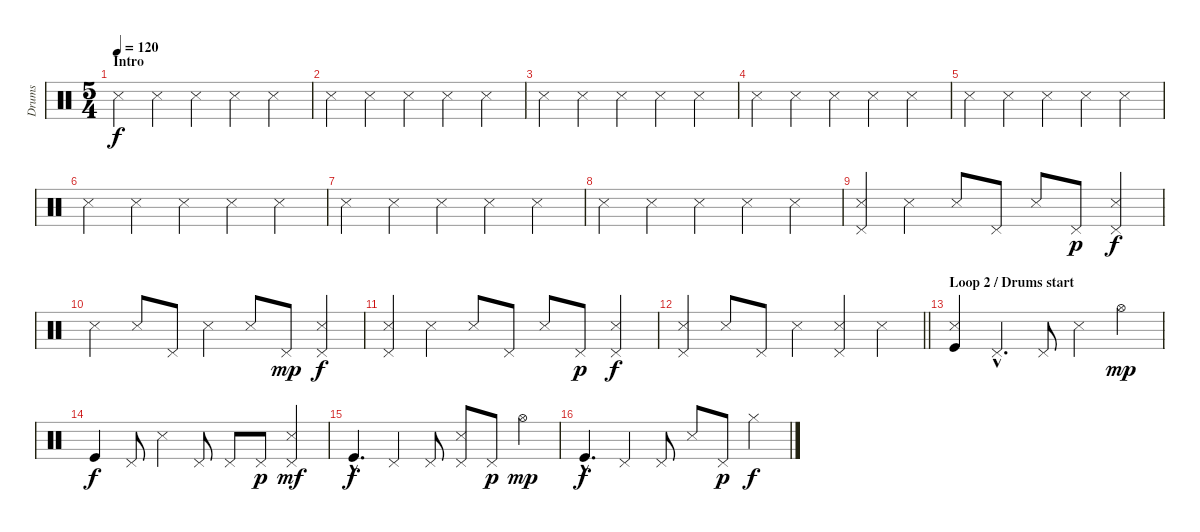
\track ("Drums" "Drums") {instrument percussion}
\staff {score}
\articulation defaults
\ts (5 4)
\section ("" "Intro")
\tempo 120
\clef neutral
\ks c "Snare (side stick) 3".4{dy f} "Snare (side stick) 3".4 "Snare (side stick) 3".4 "Snare (side stick) 3".4 "Snare (side stick) 3".4
|
"Snare (side stick) 3".4 "Snare (side stick) 3".4 "Snare (side stick) 3".4 "Snare (side stick) 3".4 "Snare (side stick) 3".4 |
"Snare (side stick) 3".4 "Snare (side stick) 3".4 "Snare (side stick) 3".4 "Snare (side stick) 3".4 "Snare (side stick) 3".4 |
"Snare (side stick) 3".4 "Snare (side stick) 3".4 "Snare (side stick) 3".4 "Snare (side stick) 3".4 "Snare (side stick) 3".4 |
"Snare (side stick) 3".4 "Snare (side stick) 3".4 "Snare (side stick) 3".4 "Snare (side stick) 3".4 "Snare (side stick) 3".4 |
"Snare (side stick) 3".4 "Snare (side stick) 3".4 "Snare (side stick) 3".4 "Snare (side stick) 3".4 "Snare (side stick) 3".4 |
"Snare (side stick) 3".4 "Snare (side stick) 3".4 "Snare (side stick) 3".4 "Snare (side stick) 3".4 "Snare (side stick) 3".4 |
"Snare (side stick) 3".4 "Snare (side stick) 3".4 "Snare (side stick) 3".4 "Snare (side stick) 3".4 "Snare (side stick) 3".4 |
("Pedal Hi-Hat (hit)" "Snare (side stick) 3").4 "Snare (side stick) 3".4 "Snare (side stick) 3".8 "Pedal Hi-Hat (hit)".8 "Snare (side stick) 3".8 "Pedal Hi-Hat (hit)".8{dy p} ("Pedal Hi-Hat (hit)" "Snare (side stick) 3").4{dy f} |
"Snare (side stick) 3".4 "Snare (side stick) 3".8 "Pedal Hi-Hat (hit)".8 "Snare (side stick) 3".4 "Snare (side stick) 3".8 "Pedal Hi-Hat (hit)".8{dy mp} ("Pedal Hi-Hat (hit)" "Snare (side stick) 3").4{dy f} |
("Pedal Hi-Hat (hit)" "Snare (side stick) 3").4 "Snare (side stick) 3".4 "Snare (side stick) 3".8 "Pedal Hi-Hat (hit)".8 "Snare (side stick) 3".8 "Pedal Hi-Hat (hit)".8{dy p} ("Pedal Hi-Hat (hit)" "Snare (side stick) 3").4{dy f} |
\barLineRight lightlight
("Pedal Hi-Hat (hit)" "Snare (side stick) 3").4 "Snare (side stick) 3".8 "Pedal Hi-Hat (hit)".8 "Snare (side stick) 3".4 ("Pedal Hi-Hat (hit)" "Snare (side stick) 3").4 "Snare (side stick) 3".4 |
\section ("" "Loop 2 / Drums start")
("Snare (side stick) 3" "Kick (hit)").4 "Pedal Hi-Hat (hit)"{hac}.4{d} "Pedal Hi-Hat (hit)".8 "Snare (side stick) 3".4 "Hi-Hat (open)".4{dy mp} |
"Kick (hit)".4{dy f} "Pedal Hi-Hat (hit)".8 "Snare (side stick) 3".4 "Pedal Hi-Hat (hit)".8 "Pedal Hi-Hat (hit)".8 "Pedal Hi-Hat (hit)".8{dy p} ("Pedal Hi-Hat (hit)" "Snare (side stick) 3").4{dy mf} |
"Kick (hit)"{hac}.4{d dy f} "Pedal Hi-Hat (hit)".4 "Pedal Hi-Hat (hit)".8 ("Pedal Hi-Hat (hit)" "Snare (side stick) 3").8 "Pedal Hi-Hat (hit)".8{dy p} "Hi-Hat (open)".4{dy mp} |
"Kick (hit)"{hac}.4{d dy f} "Pedal Hi-Hat (hit)".4 "Pedal Hi-Hat (hit)".8 "Snare (side stick) 3".8 "Pedal Hi-Hat (hit)".8{dy p} "Hi-Hat (closed)".4{dy f}
